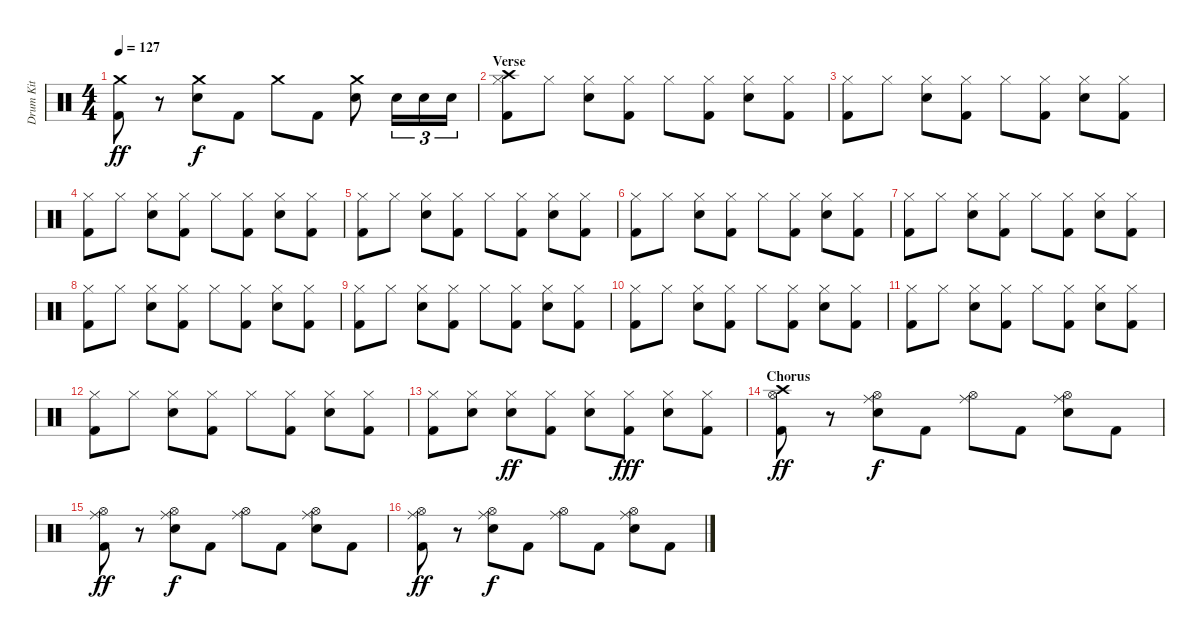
\track ("Drum Kit" "Drum Kit") {instrument percussion}
\staff {score}
\articulation defaults
\ts (4 4)
\tempo 127
\clef neutral
\ks c
("Crash medium (hit)" "Kick (hit) 2").8{dy ff} r.8 ("Crash medium (hit)" "Electric Snare (hit)").8{dy f} "Kick (hit) 2".8 "Crash medium (hit)".8 "Kick (hit) 2".8 ("Crash medium (hit)" "Electric Snare (hit)").8 "Electric Snare (hit)".16{tu (3 2)} "Electric Snare (hit)".16{tu (3 2)} "Electric Snare (hit)".16{tu (3 2)} |
\section ("" "Verse")
("Crash high (hit)" "Hi-Hat (closed)" "Kick (hit) 2").8 "Hi-Hat (closed)".8 ("Hi-Hat (closed)" "Electric Snare (hit)").8 ("Hi-Hat (closed)" "Kick (hit) 2").8 "Hi-Hat (closed)".8 ("Hi-Hat (closed)" "Kick (hit) 2").8 ("Hi-Hat (closed)" "Electric Snare (hit)").8 ("Hi-Hat (closed)" "Kick (hit) 2").8 |
("Hi-Hat (closed)" "Kick (hit) 2").8 "Hi-Hat (closed)".8 ("Hi-Hat (closed)" "Electric Snare (hit)").8 ("Hi-Hat (closed)" "Kick (hit) 2").8 "Hi-Hat (closed)".8 ("Hi-Hat (closed)" "Kick (hit) 2").8 ("Hi-Hat (closed)" "Electric Snare (hit)").8 ("Hi-Hat (closed)" "Kick (hit) 2").8 |
("Hi-Hat (closed)" "Kick (hit) 2").8 "Hi-Hat (closed)".8 ("Hi-Hat (closed)" "Electric Snare (hit)").8 ("Hi-Hat (closed)" "Kick (hit) 2").8 "Hi-Hat (closed)".8 ("Hi-Hat (closed)" "Kick (hit) 2").8 ("Hi-Hat (closed)" "Electric Snare (hit)").8 ("Hi-Hat (closed)" "Kick (hit) 2").8 |
("Hi-Hat (closed)" "Kick (hit) 2").8 "Hi-Hat (closed)".8 ("Hi-Hat (closed)" "Electric Snare (hit)").8 ("Hi-Hat (closed)" "Kick (hit) 2").8 "Hi-Hat (closed)".8 ("Hi-Hat (closed)" "Kick (hit) 2").8 ("Hi-Hat (closed)" "Electric Snare (hit)").8 ("Hi-Hat (closed)" "Kick (hit) 2").8 |
("Hi-Hat (closed)" "Kick (hit) 2").8 "Hi-Hat (closed)".8 ("Hi-Hat (closed)" "Electric Snare (hit)").8 ("Hi-Hat (closed)" "Kick (hit) 2").8 "Hi-Hat (closed)".8 ("Hi-Hat (closed)" "Kick (hit) 2").8 ("Hi-Hat (closed)" "Electric Snare (hit)").8 ("Hi-Hat (closed)" "Kick (hit) 2").8 |
("Hi-Hat (closed)" "Kick (hit) 2").8 "Hi-Hat (closed)".8 ("Hi-Hat (closed)" "Electric Snare (hit)").8 ("Hi-Hat (closed)" "Kick (hit) 2").8 "Hi-Hat (closed)".8 ("Hi-Hat (closed)" "Kick (hit) 2").8 ("Hi-Hat (closed)" "Electric Snare (hit)").8 ("Hi-Hat (closed)" "Kick (hit) 2").8 |
("Hi-Hat (closed)" "Kick (hit) 2").8 "Hi-Hat (closed)".8 ("Hi-Hat (closed)" "Electric Snare (hit)").8 ("Hi-Hat (closed)" "Kick (hit) 2").8 "Hi-Hat (closed)".8 ("Hi-Hat (closed)" "Kick (hit) 2").8 ("Hi-Hat (closed)" "Electric Snare (hit)").8 ("Hi-Hat (closed)" "Kick (hit) 2").8 |
("Hi-Hat (closed)" "Kick (hit) 2").8 "Hi-Hat (closed)".8 ("Hi-Hat (closed)" "Electric Snare (hit)").8 ("Hi-Hat (closed)" "Kick (hit) 2").8 "Hi-Hat (closed)".8 ("Hi-Hat (closed)" "Kick (hit) 2").8 ("Hi-Hat (closed)" "Electric Snare (hit)").8 ("Hi-Hat (closed)" "Kick (hit) 2").8 |
("Hi-Hat (closed)" "Kick (hit) 2").8 "Hi-Hat (closed)".8 ("Hi-Hat (closed)" "Electric Snare (hit)").8 ("Hi-Hat (closed)" "Kick (hit) 2").8 "Hi-Hat (closed)".8 ("Hi-Hat (closed)" "Kick (hit) 2").8 ("Hi-Hat (closed)" "Electric Snare (hit)").8 ("Hi-Hat (closed)" "Kick (hit) 2").8 |
("Hi-Hat (closed)" "Kick (hit) 2").8 "Hi-Hat (closed)".8 ("Hi-Hat (closed)" "Electric Snare (hit)").8 ("Hi-Hat (closed)" "Kick (hit) 2").8 "Hi-Hat (closed)".8 ("Hi-Hat (closed)" "Kick (hit) 2").8 ("Hi-Hat (closed)" "Electric Snare (hit)").8 ("Hi-Hat (closed)" "Kick (hit) 2").8 |
("Hi-Hat (closed)" "Kick (hit) 2").8 "Hi-Hat (closed)".8 ("Hi-Hat (closed)" "Electric Snare (hit)").8 ("Hi-Hat (closed)" "Kick (hit) 2").8 "Hi-Hat (closed)".8 ("Hi-Hat (closed)" "Kick (hit) 2").8 ("Hi-Hat (closed)" "Electric Snare (hit)").8 ("Hi-Hat (closed)" "Kick (hit) 2").8 |
("Hi-Hat (closed)" "Kick (hit) 2").8 ("Hi-Hat (closed)" "Electric Snare (hit)").8 ("Hi-Hat (closed)" "Electric Snare (hit)").8{dy ff} ("Hi-Hat (closed)" "Kick (hit) 2").8 ("Hi-Hat (closed)" "Electric Snare (hit)").8 ("Hi-Hat (closed)" "Kick (hit) 2").8{dy fff} ("Hi-Hat (closed)" "Electric Snare (hit)").8 ("Hi-Hat (closed)" "Kick (hit) 2").8 |
\section ("" "Chorus")
("Crash high (hit)" "Hi-Hat (open)" "Kick (hit) 2").8{dy ff} r.8 ("Ride (middle)" "Hi-Hat (open)" "Electric Snare (hit)").8{dy f} "Kick (hit) 2".8 ("Ride (middle)" "Hi-Hat (open)").8 "Kick (hit) 2".8 ("Ride (middle)" "Hi-Hat (open)" "Electric Snare (hit)").8 "Kick (hit) 2".8 |
("Ride (middle)" "Hi-Hat (open)" "Kick (hit) 2").8{dy ff} r.8 ("Ride (middle)" "Hi-Hat (open)" "Electric Snare (hit)").8{dy f} "Kick (hit) 2".8 ("Ride (middle)" "Hi-Hat (open)").8 "Kick (hit) 2".8 ("Ride (middle)" "Hi-Hat (open)" "Electric Snare (hit)").8 "Kick (hit) 2".8 |
("Ride (middle)" "Hi-Hat (open)" "Kick (hit) 2").8{dy ff} r.8 ("Ride (middle)" "Hi-Hat (open)" "Electric Snare (hit)").8{dy f} "Kick (hit) 2".8 ("Ride (middle)" "Hi-Hat (open)").8 "Kick (hit) 2".8 ("Ride (middle)" "Hi-Hat (open)" "Electric Snare (hit)").8 "Kick (hit) 2".8
